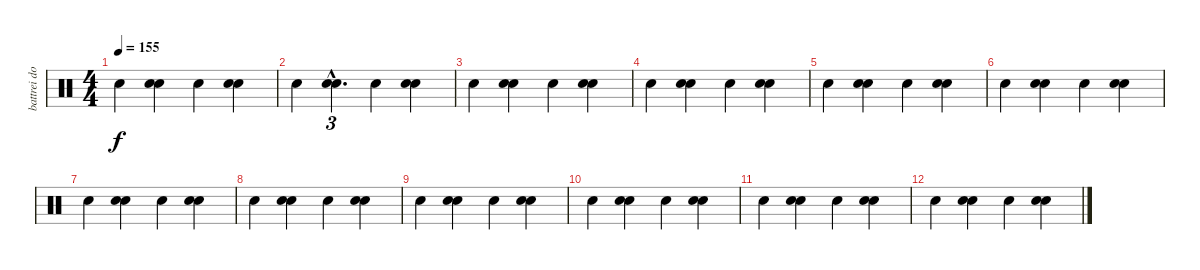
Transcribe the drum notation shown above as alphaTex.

\track ("battrei dom" "battrei do") {instrument percussion}
\staff {score}
\articulation defaults
\ts (4 4)
\tempo 155
\clef neutral
\ks c "Snare (hit) 2".4{dy f}
("Snare (hit) 2" "Snare (hit) 2").4 "Snare (hit) 2".4 ("Snare (hit) 2" "Snare (hit) 2").4 |
"Snare (hit) 2".4 ("Snare (hit) 2"{hac} "Snare (hit) 2"{hac}).4{d tu (3 2)} "Snare (hit) 2".4 ("Snare (hit) 2" "Snare (hit) 2").4 |
"Snare (hit) 2".4 ("Snare (hit) 2" "Snare (hit) 2").4 "Snare (hit) 2".4 ("Snare (hit) 2" "Snare (hit) 2").4 |
"Snare (hit) 2".4 ("Snare (hit) 2" "Snare (hit) 2").4 "Snare (hit) 2".4 ("Snare (hit) 2" "Snare (hit) 2").4 |
"Snare (hit) 2".4 ("Snare (hit) 2" "Snare (hit) 2").4 "Snare (hit) 2".4 ("Snare (hit) 2" "Snare (hit) 2").4 |
"Snare (hit) 2".4 ("Snare (hit) 2" "Snare (hit) 2").4 "Snare (hit) 2".4 ("Snare (hit) 2" "Snare (hit) 2").4 |
"Snare (hit) 2".4 ("Snare (hit) 2" "Snare (hit) 2").4 "Snare (hit) 2".4 ("Snare (hit) 2" "Snare (hit) 2").4 |
"Snare (hit) 2".4 ("Snare (hit) 2" "Snare (hit) 2").4 "Snare (hit) 2".4 ("Snare (hit) 2" "Snare (hit) 2").4 |
"Snare (hit) 2".4 ("Snare (hit) 2" "Snare (hit) 2").4 "Snare (hit) 2".4 ("Snare (hit) 2" "Snare (hit) 2").4 |
"Snare (hit) 2".4 ("Snare (hit) 2" "Snare (hit) 2").4 "Snare (hit) 2".4 ("Snare (hit) 2" "Snare (hit) 2").4 |
"Snare (hit) 2".4 ("Snare (hit) 2" "Snare (hit) 2").4 "Snare (hit) 2".4 ("Snare (hit) 2" "Snare (hit) 2").4 |
"Snare (hit) 2".4 ("Snare (hit) 2" "Snare (hit) 2").4 "Snare (hit) 2".4 ("Snare (hit) 2" "Snare (hit) 2").4
